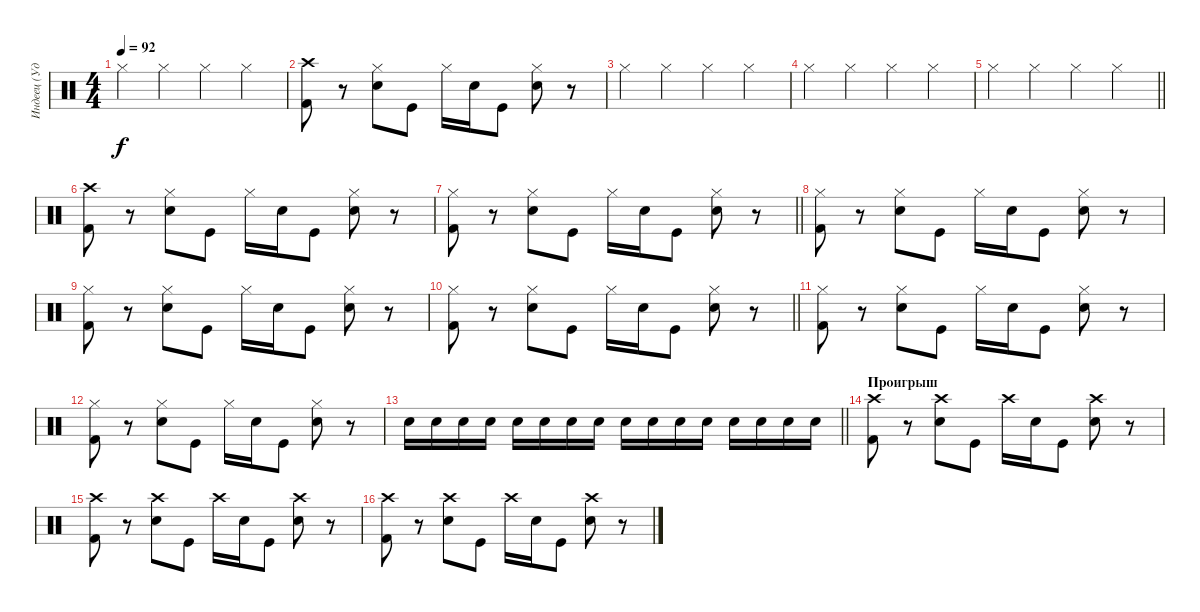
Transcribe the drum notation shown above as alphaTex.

\track ("Индеец (Ударные)" "Индеец (Уд") {instrument percussion}
\staff {score}
\articulation defaults
\ts (4 4)
\tempo 92
\clef neutral
\ks c "Hi-Hat (closed)".4{dy f} "Hi-Hat (closed)".4 "Hi-Hat (closed)".4 "Hi-Hat (closed)".4
|
("Crash high (hit)" "Kick (hit) 2").8 r.8 ("Hi-Hat (closed)" "Electric Snare (hit)").8 "Kick (hit)".8 "Hi-Hat (closed)".16 "Electric Snare (hit)".16 "Kick (hit)".8 ("Hi-Hat (closed)" "Electric Snare (hit)").8 r.8 |
"Hi-Hat (closed)".4 "Hi-Hat (closed)".4 "Hi-Hat (closed)".4 "Hi-Hat (closed)".4 |
"Hi-Hat (closed)".4 "Hi-Hat (closed)".4 "Hi-Hat (closed)".4 "Hi-Hat (closed)".4 |
\barLineRight lightlight "Hi-Hat (closed)".4 "Hi-Hat (closed)".4 "Hi-Hat (closed)".4 "Hi-Hat (closed)".4
|
\section ("" "")
("Crash high (hit)" "Kick (hit) 2").8 r.8 ("Hi-Hat (closed)" "Electric Snare (hit)").8 "Kick (hit)".8 "Hi-Hat (closed)".16 "Electric Snare (hit)".16 "Kick (hit)".8 ("Hi-Hat (closed)" "Electric Snare (hit)").8 r.8 |
\barLineRight lightlight
("Hi-Hat (closed)" "Kick (hit) 2").8 r.8 ("Hi-Hat (closed)" "Electric Snare (hit)").8 "Kick (hit)".8 "Hi-Hat (closed)".16 "Electric Snare (hit)".16 "Kick (hit)".8 ("Hi-Hat (closed)" "Electric Snare (hit)").8 r.8 |
("Hi-Hat (closed)" "Kick (hit) 2").8 r.8 ("Hi-Hat (closed)" "Electric Snare (hit)").8 "Kick (hit)".8 "Hi-Hat (closed)".16 "Electric Snare (hit)".16 "Kick (hit)".8 ("Hi-Hat (closed)" "Electric Snare (hit)").8 r.8 |
("Hi-Hat (closed)" "Kick (hit) 2").8 r.8 ("Hi-Hat (closed)" "Electric Snare (hit)").8 "Kick (hit)".8 "Hi-Hat (closed)".16 "Electric Snare (hit)".16 "Kick (hit)".8 ("Hi-Hat (closed)" "Electric Snare (hit)").8 r.8 |
\barLineRight lightlight
("Hi-Hat (closed)" "Kick (hit) 2").8 r.8 ("Hi-Hat (closed)" "Electric Snare (hit)").8 "Kick (hit)".8 "Hi-Hat (closed)".16 "Electric Snare (hit)".16 "Kick (hit)".8 ("Hi-Hat (closed)" "Electric Snare (hit)").8 r.8 |
("Hi-Hat (closed)" "Kick (hit) 2").8 r.8 ("Hi-Hat (closed)" "Electric Snare (hit)").8 "Kick (hit)".8 "Hi-Hat (closed)".16 "Electric Snare (hit)".16 "Kick (hit)".8 ("Hi-Hat (closed)" "Electric Snare (hit)").8 r.8 |
("Hi-Hat (closed)" "Kick (hit) 2").8 r.8 ("Hi-Hat (closed)" "Electric Snare (hit)").8 "Kick (hit)".8 "Hi-Hat (closed)".16 "Electric Snare (hit)".16 "Kick (hit)".8 ("Hi-Hat (closed)" "Electric Snare (hit)").8 r.8 |
\barLineRight lightlight "Electric Snare (hit)".16 "Electric Snare (hit)".16 "Electric Snare (hit)".16 "Electric Snare (hit)".16 "Electric Snare (hit)".16 "Electric Snare (hit)".16 "Electric Snare (hit)".16 "Electric Snare (hit)".16 "Electric Snare (hit)".16 "Electric Snare (hit)".16 "Electric Snare (hit)".16 "Electric Snare (hit)".16 "Electric Snare (hit)".16 "Electric Snare (hit)".16 "Electric Snare (hit)".16 "Electric Snare (hit)".16
|
\section ("" "Проигрыш")
("Crash high (hit)" "Kick (hit) 2").8 r.8 ("Crash high (hit)" "Electric Snare (hit)").8 "Kick (hit)".8 "Crash high (hit)".16 "Electric Snare (hit)".16 "Kick (hit)".8 ("Crash high (hit)" "Electric Snare (hit)").8 r.8 |
("Crash high (hit)" "Kick (hit) 2").8 r.8 ("Crash high (hit)" "Electric Snare (hit)").8 "Kick (hit)".8 "Crash high (hit)".16 "Electric Snare (hit)".16 "Kick (hit)".8 ("Crash high (hit)" "Electric Snare (hit)").8 r.8 |
("Crash high (hit)" "Kick (hit) 2").8 r.8 ("Crash high (hit)" "Electric Snare (hit)").8 "Kick (hit)".8 "Crash high (hit)".16 "Electric Snare (hit)".16 "Kick (hit)".8 ("Crash high (hit)" "Electric Snare (hit)").8 r.8
